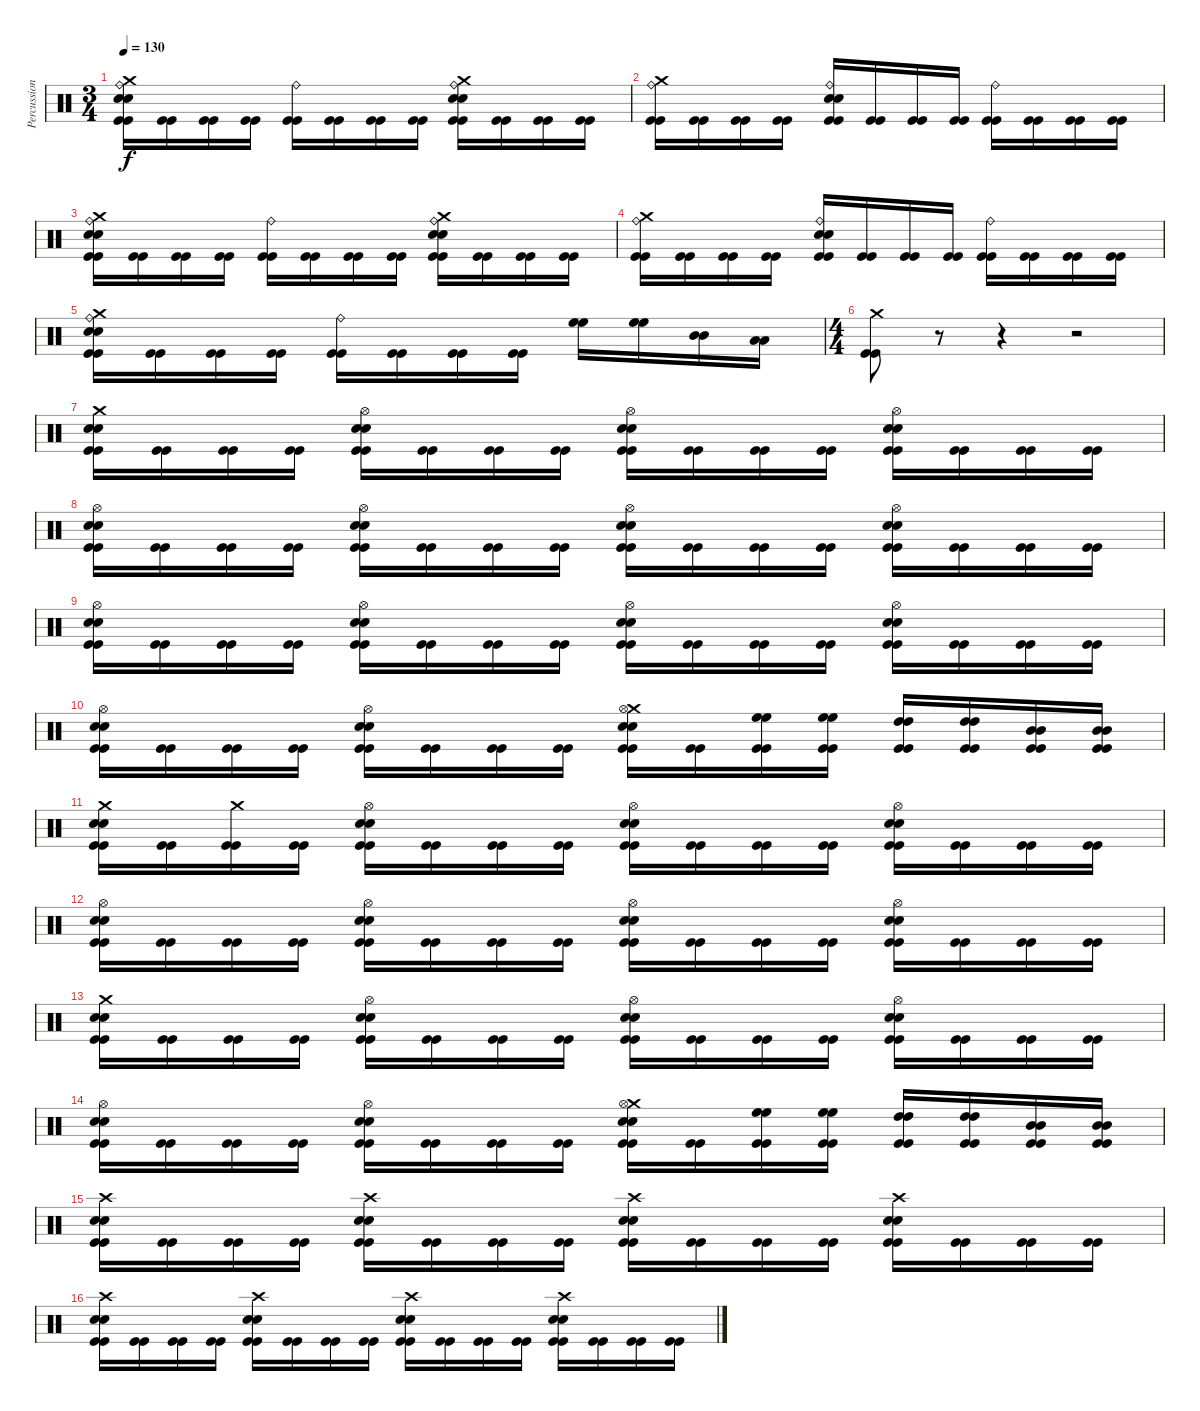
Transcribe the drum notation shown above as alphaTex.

\track ("Percussion" "Percussion") {instrument percussion}
\staff {score}
\articulation defaults
\ts (3 4)
\tempo 130
\clef neutral
\ks c
("Crash medium (hit)" "Snare (hit) 2" "Snare (hit) 2" "Ride (bell)" "Kick (hit)" "Kick (hit)").16{dy f} ("Kick (hit)" "Kick (hit)").16 ("Kick (hit)" "Kick (hit)").16 ("Kick (hit)" "Kick (hit)").16 ("Ride (bell)" "Kick (hit)" "Kick (hit)").16 ("Kick (hit)" "Kick (hit)").16 ("Kick (hit)" "Kick (hit)").16 ("Kick (hit)" "Kick (hit)").16 ("Crash medium (hit)" "Snare (hit) 2" "Snare (hit) 2" "Ride (bell)" "Kick (hit)" "Kick (hit)").16 ("Kick (hit)" "Kick (hit)").16 ("Kick (hit)" "Kick (hit)").16 ("Kick (hit)" "Kick (hit)").16 |
("Crash medium (hit)" "Ride (bell)" "Kick (hit)" "Kick (hit)").16 ("Kick (hit)" "Kick (hit)").16 ("Kick (hit)" "Kick (hit)").16 ("Kick (hit)" "Kick (hit)").16 ("Snare (hit) 2" "Snare (hit) 2" "Ride (bell)" "Kick (hit)" "Kick (hit)").16 ("Kick (hit)" "Kick (hit)").16 ("Kick (hit)" "Kick (hit)").16 ("Kick (hit)" "Kick (hit)").16 ("Ride (bell)" "Kick (hit)" "Kick (hit)").16 ("Kick (hit)" "Kick (hit)").16 ("Kick (hit)" "Kick (hit)").16 ("Kick (hit)" "Kick (hit)").16 |
("Crash medium (hit)" "Snare (hit) 2" "Snare (hit) 2" "Ride (bell)" "Kick (hit)" "Kick (hit)").16 ("Kick (hit)" "Kick (hit)").16 ("Kick (hit)" "Kick (hit)").16 ("Kick (hit)" "Kick (hit)").16 ("Ride (bell)" "Kick (hit)" "Kick (hit)").16 ("Kick (hit)" "Kick (hit)").16 ("Kick (hit)" "Kick (hit)").16 ("Kick (hit)" "Kick (hit)").16 ("Crash medium (hit)" "Snare (hit) 2" "Snare (hit) 2" "Ride (bell)" "Kick (hit)" "Kick (hit)").16 ("Kick (hit)" "Kick (hit)").16 ("Kick (hit)" "Kick (hit)").16 ("Kick (hit)" "Kick (hit)").16 |
("Crash medium (hit)" "Ride (bell)" "Kick (hit)" "Kick (hit)").16 ("Kick (hit)" "Kick (hit)").16 ("Kick (hit)" "Kick (hit)").16 ("Kick (hit)" "Kick (hit)").16 ("Snare (hit) 2" "Snare (hit) 2" "Ride (bell)" "Kick (hit)" "Kick (hit)").16 ("Kick (hit)" "Kick (hit)").16 ("Kick (hit)" "Kick (hit)").16 ("Kick (hit)" "Kick (hit)").16 ("Ride (bell)" "Kick (hit)" "Kick (hit)").16 ("Kick (hit)" "Kick (hit)").16 ("Kick (hit)" "Kick (hit)").16 ("Kick (hit)" "Kick (hit)").16 |
("Crash medium (hit)" "Snare (hit) 2" "Snare (hit) 2" "Ride (bell)" "Kick (hit)" "Kick (hit)").16 ("Kick (hit)" "Kick (hit)").16 ("Kick (hit)" "Kick (hit)").16 ("Kick (hit)" "Kick (hit)").16 ("Ride (bell)" "Kick (hit)" "Kick (hit)").16 ("Kick (hit)" "Kick (hit)").16 ("Kick (hit)" "Kick (hit)").16 ("Kick (hit)" "Kick (hit)").16 ("High Floor Tom (hit)" "High Floor Tom (hit)").16 ("High Floor Tom (hit)" "High Floor Tom (hit)").16 ("Mid Tom (hit)" "Mid Tom (hit)").16 ("Low Tom (hit)" "Low Tom (hit)").16 |
\ts (4 4)
("Crash medium (hit)" "Kick (hit)" "Kick (hit)").8 r.8 r.4 r.2 |
("Crash medium (hit)" "Snare (hit) 2" "Snare (hit) 2" "Kick (hit)" "Kick (hit)").16 ("Kick (hit)" "Kick (hit)").16 ("Kick (hit)" "Kick (hit)").16 ("Kick (hit)" "Kick (hit)").16 ("Snare (hit) 2" "Snare (hit) 2" "Hi-Hat (open)" "Kick (hit)" "Kick (hit)").16 ("Kick (hit)" "Kick (hit)").16 ("Kick (hit)" "Kick (hit)").16 ("Kick (hit)" "Kick (hit)").16 ("Snare (hit) 2" "Snare (hit) 2" "Hi-Hat (open)" "Kick (hit)" "Kick (hit)").16 ("Kick (hit)" "Kick (hit)").16 ("Kick (hit)" "Kick (hit)").16 ("Kick (hit)" "Kick (hit)").16 ("Snare (hit) 2" "Snare (hit) 2" "Hi-Hat (open)" "Kick (hit)" "Kick (hit)").16 ("Kick (hit)" "Kick (hit)").16 ("Kick (hit)" "Kick (hit)").16 ("Kick (hit)" "Kick (hit)").16 |
("Snare (hit) 2" "Snare (hit) 2" "Hi-Hat (open)" "Kick (hit)" "Kick (hit)").16 ("Kick (hit)" "Kick (hit)").16 ("Kick (hit)" "Kick (hit)").16 ("Kick (hit)" "Kick (hit)").16 ("Snare (hit) 2" "Snare (hit) 2" "Hi-Hat (open)" "Kick (hit)" "Kick (hit)").16 ("Kick (hit)" "Kick (hit)").16 ("Kick (hit)" "Kick (hit)").16 ("Kick (hit)" "Kick (hit)").16 ("Snare (hit) 2" "Snare (hit) 2" "Hi-Hat (open)" "Kick (hit)" "Kick (hit)").16 ("Kick (hit)" "Kick (hit)").16 ("Kick (hit)" "Kick (hit)").16 ("Kick (hit)" "Kick (hit)").16 ("Snare (hit) 2" "Snare (hit) 2" "Hi-Hat (open)" "Kick (hit)" "Kick (hit)").16 ("Kick (hit)" "Kick (hit)").16 ("Kick (hit)" "Kick (hit)").16 ("Kick (hit)" "Kick (hit)").16 |
("Snare (hit) 2" "Snare (hit) 2" "Hi-Hat (open)" "Kick (hit)" "Kick (hit)").16 ("Kick (hit)" "Kick (hit)").16 ("Kick (hit)" "Kick (hit)").16 ("Kick (hit)" "Kick (hit)").16 ("Snare (hit) 2" "Snare (hit) 2" "Hi-Hat (open)" "Kick (hit)" "Kick (hit)").16 ("Kick (hit)" "Kick (hit)").16 ("Kick (hit)" "Kick (hit)").16 ("Kick (hit)" "Kick (hit)").16 ("Snare (hit) 2" "Snare (hit) 2" "Hi-Hat (open)" "Kick (hit)" "Kick (hit)").16 ("Kick (hit)" "Kick (hit)").16 ("Kick (hit)" "Kick (hit)").16 ("Kick (hit)" "Kick (hit)").16 ("Snare (hit) 2" "Snare (hit) 2" "Hi-Hat (open)" "Kick (hit)" "Kick (hit)").16 ("Kick (hit)" "Kick (hit)").16 ("Kick (hit)" "Kick (hit)").16 ("Kick (hit)" "Kick (hit)").16 |
("Snare (hit) 2" "Snare (hit) 2" "Hi-Hat (open)" "Kick (hit)" "Kick (hit)").16 ("Kick (hit)" "Kick (hit)").16 ("Kick (hit)" "Kick (hit)").16 ("Kick (hit)" "Kick (hit)").16 ("Snare (hit) 2" "Snare (hit) 2" "Hi-Hat (open)" "Kick (hit)" "Kick (hit)").16 ("Kick (hit)" "Kick (hit)").16 ("Kick (hit)" "Kick (hit)").16 ("Kick (hit)" "Kick (hit)").16 ("Crash medium (hit)" "Snare (hit) 2" "Snare (hit) 2" "Hi-Hat (open)" "Kick (hit)" "Kick (hit)").16 ("Kick (hit)" "Kick (hit)").16 ("High Floor Tom (hit)" "High Floor Tom (hit)" "Kick (hit)" "Kick (hit)").16 ("High Floor Tom (hit)" "High Floor Tom (hit)" "Kick (hit)" "Kick (hit)").16 ("High Tom (hit)" "High Tom (hit)" "Kick (hit)" "Kick (hit)").16 ("High Tom (hit)" "High Tom (hit)" "Kick (hit)" "Kick (hit)").16 ("Mid Tom (hit)" "Mid Tom (hit)" "Kick (hit)" "Kick (hit)").16 ("Mid Tom (hit)" "Mid Tom (hit)" "Kick (hit)" "Kick (hit)").16 |
("Crash medium (hit)" "Snare (hit) 2" "Snare (hit) 2" "Kick (hit)" "Kick (hit)").16 ("Kick (hit)" "Kick (hit)").16 ("Crash medium (hit)" "Kick (hit)" "Kick (hit)").16 ("Kick (hit)" "Kick (hit)").16 ("Snare (hit) 2" "Snare (hit) 2" "Hi-Hat (open)" "Kick (hit)" "Kick (hit)").16 ("Kick (hit)" "Kick (hit)").16 ("Kick (hit)" "Kick (hit)").16 ("Kick (hit)" "Kick (hit)").16 ("Snare (hit) 2" "Snare (hit) 2" "Hi-Hat (open)" "Kick (hit)" "Kick (hit)").16 ("Kick (hit)" "Kick (hit)").16 ("Kick (hit)" "Kick (hit)").16 ("Kick (hit)" "Kick (hit)").16 ("Snare (hit) 2" "Snare (hit) 2" "Hi-Hat (open)" "Kick (hit)" "Kick (hit)").16 ("Kick (hit)" "Kick (hit)").16 ("Kick (hit)" "Kick (hit)").16 ("Kick (hit)" "Kick (hit)").16 |
("Snare (hit) 2" "Snare (hit) 2" "Hi-Hat (open)" "Kick (hit)" "Kick (hit)").16 ("Kick (hit)" "Kick (hit)").16 ("Kick (hit)" "Kick (hit)").16 ("Kick (hit)" "Kick (hit)").16 ("Snare (hit) 2" "Snare (hit) 2" "Hi-Hat (open)" "Kick (hit)" "Kick (hit)").16 ("Kick (hit)" "Kick (hit)").16 ("Kick (hit)" "Kick (hit)").16 ("Kick (hit)" "Kick (hit)").16 ("Snare (hit) 2" "Snare (hit) 2" "Hi-Hat (open)" "Kick (hit)" "Kick (hit)").16 ("Kick (hit)" "Kick (hit)").16 ("Kick (hit)" "Kick (hit)").16 ("Kick (hit)" "Kick (hit)").16 ("Snare (hit) 2" "Snare (hit) 2" "Hi-Hat (open)" "Kick (hit)" "Kick (hit)").16 ("Kick (hit)" "Kick (hit)").16 ("Kick (hit)" "Kick (hit)").16 ("Kick (hit)" "Kick (hit)").16 |
("Crash medium (hit)" "Snare (hit) 2" "Snare (hit) 2" "Kick (hit)" "Kick (hit)").16 ("Kick (hit)" "Kick (hit)").16 ("Kick (hit)" "Kick (hit)").16 ("Kick (hit)" "Kick (hit)").16 ("Snare (hit) 2" "Snare (hit) 2" "Hi-Hat (open)" "Kick (hit)" "Kick (hit)").16 ("Kick (hit)" "Kick (hit)").16 ("Kick (hit)" "Kick (hit)").16 ("Kick (hit)" "Kick (hit)").16 ("Snare (hit) 2" "Snare (hit) 2" "Hi-Hat (open)" "Kick (hit)" "Kick (hit)").16 ("Kick (hit)" "Kick (hit)").16 ("Kick (hit)" "Kick (hit)").16 ("Kick (hit)" "Kick (hit)").16 ("Snare (hit) 2" "Snare (hit) 2" "Hi-Hat (open)" "Kick (hit)" "Kick (hit)").16 ("Kick (hit)" "Kick (hit)").16 ("Kick (hit)" "Kick (hit)").16 ("Kick (hit)" "Kick (hit)").16 |
("Snare (hit) 2" "Snare (hit) 2" "Hi-Hat (open)" "Kick (hit)" "Kick (hit)").16 ("Kick (hit)" "Kick (hit)").16 ("Kick (hit)" "Kick (hit)").16 ("Kick (hit)" "Kick (hit)").16 ("Snare (hit) 2" "Snare (hit) 2" "Hi-Hat (open)" "Kick (hit)" "Kick (hit)").16 ("Kick (hit)" "Kick (hit)").16 ("Kick (hit)" "Kick (hit)").16 ("Kick (hit)" "Kick (hit)").16 ("Crash medium (hit)" "Snare (hit) 2" "Snare (hit) 2" "Hi-Hat (open)" "Kick (hit)" "Kick (hit)").16 ("Kick (hit)" "Kick (hit)").16 ("High Floor Tom (hit)" "High Floor Tom (hit)" "Kick (hit)" "Kick (hit)").16 ("High Floor Tom (hit)" "High Floor Tom (hit)" "Kick (hit)" "Kick (hit)").16 ("High Tom (hit)" "High Tom (hit)" "Kick (hit)" "Kick (hit)").16 ("High Tom (hit)" "High Tom (hit)" "Kick (hit)" "Kick (hit)").16 ("Mid Tom (hit)" "Mid Tom (hit)" "Kick (hit)" "Kick (hit)").16 ("Mid Tom (hit)" "Mid Tom (hit)" "Kick (hit)" "Kick (hit)").16 |
("Crash high (hit)" "Snare (hit) 2" "Snare (hit) 2" "Kick (hit)" "Kick (hit)").16 ("Kick (hit)" "Kick (hit)").16 ("Kick (hit)" "Kick (hit)").16 ("Kick (hit)" "Kick (hit)").16 ("Crash high (hit)" "Snare (hit) 2" "Snare (hit) 2" "Kick (hit)" "Kick (hit)").16 ("Kick (hit)" "Kick (hit)").16 ("Kick (hit)" "Kick (hit)").16 ("Kick (hit)" "Kick (hit)").16 ("Crash high (hit)" "Snare (hit) 2" "Snare (hit) 2" "Kick (hit)" "Kick (hit)").16 ("Kick (hit)" "Kick (hit)").16 ("Kick (hit)" "Kick (hit)").16 ("Kick (hit)" "Kick (hit)").16 ("Crash high (hit)" "Snare (hit) 2" "Snare (hit) 2" "Kick (hit)" "Kick (hit)").16 ("Kick (hit)" "Kick (hit)").16 ("Kick (hit)" "Kick (hit)").16 ("Kick (hit)" "Kick (hit)").16 |
("Crash high (hit)" "Snare (hit) 2" "Snare (hit) 2" "Kick (hit)" "Kick (hit)").16 ("Kick (hit)" "Kick (hit)").16 ("Kick (hit)" "Kick (hit)").16 ("Kick (hit)" "Kick (hit)").16 ("Crash high (hit)" "Snare (hit) 2" "Snare (hit) 2" "Kick (hit)" "Kick (hit)").16 ("Kick (hit)" "Kick (hit)").16 ("Kick (hit)" "Kick (hit)").16 ("Kick (hit)" "Kick (hit)").16 ("Crash high (hit)" "Snare (hit) 2" "Snare (hit) 2" "Kick (hit)" "Kick (hit)").16 ("Kick (hit)" "Kick (hit)").16 ("Kick (hit)" "Kick (hit)").16 ("Kick (hit)" "Kick (hit)").16 ("Crash high (hit)" "Snare (hit) 2" "Snare (hit) 2" "Kick (hit)" "Kick (hit)").16 ("Kick (hit)" "Kick (hit)").16 ("Kick (hit)" "Kick (hit)").16 ("Kick (hit)" "Kick (hit)").16
